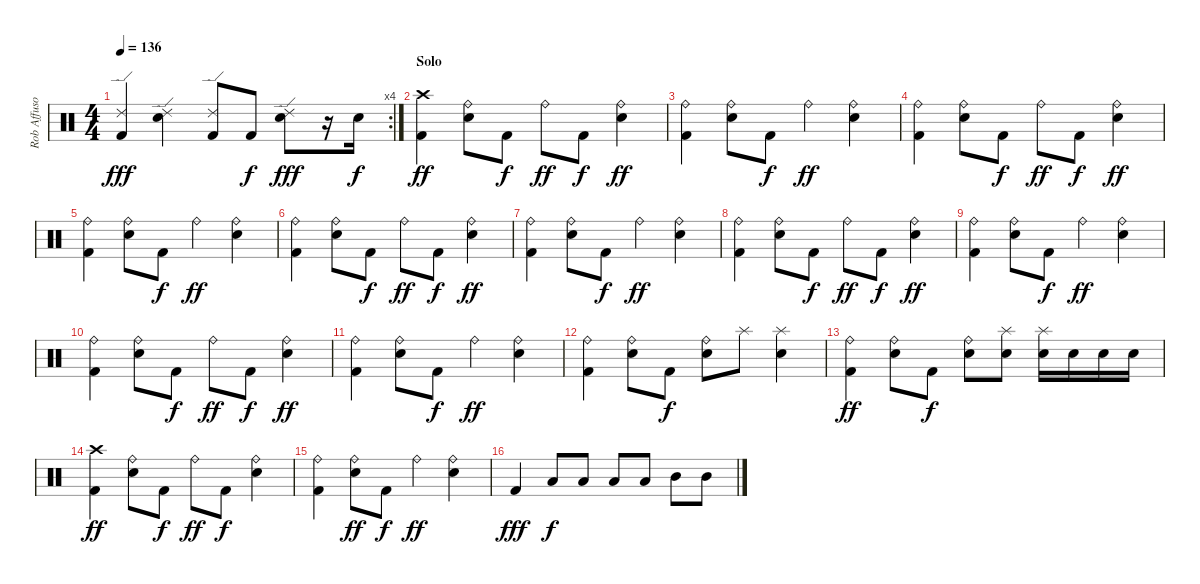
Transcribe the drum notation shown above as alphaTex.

\track ("Rob Affuso" "Rob Affuso") {instrument percussion}
\staff {score}
\articulation defaults
\rc 4
\ts (4 4)
\tempo 136
\clef neutral
\ks c
("Ride (edge) 2" "Kick (hit) 2").4{dy fff} ("Ride (edge) 2" "Snare (hit) 2").4 ("Ride (edge) 2" "Kick (hit) 2").8 "Kick (hit) 2".8{dy f} ("Ride (edge) 2" "Snare (hit) 2").8{dy fff} r.16 "Snare (hit) 2".16{dy f} |
\section ("" "Solo")
("Crash high (hit)" "Kick (hit) 2").4{dy ff} ("Ride (bell)" "Snare (hit) 2").8 "Kick (hit) 2".8{dy f} "Ride (bell)".8{dy ff} "Kick (hit) 2".8{dy f} ("Ride (bell)" "Snare (hit) 2").4{dy ff} |
("Ride (bell)" "Kick (hit) 2").4 ("Ride (bell)" "Snare (hit) 2").8 "Kick (hit) 2".8{dy f} "Ride (bell)".4{dy ff} ("Ride (bell)" "Snare (hit) 2").4 |
("Ride (bell)" "Kick (hit) 2").4 ("Ride (bell)" "Snare (hit) 2").8 "Kick (hit) 2".8{dy f} "Ride (bell)".8{dy ff} "Kick (hit) 2".8{dy f} ("Ride (bell)" "Snare (hit) 2").4{dy ff} |
("Ride (bell)" "Kick (hit) 2").4 ("Ride (bell)" "Snare (hit) 2").8 "Kick (hit) 2".8{dy f} "Ride (bell)".4{dy ff} ("Ride (bell)" "Snare (hit) 2").4 |
("Ride (bell)" "Kick (hit) 2").4 ("Ride (bell)" "Snare (hit) 2").8 "Kick (hit) 2".8{dy f} "Ride (bell)".8{dy ff} "Kick (hit) 2".8{dy f} ("Ride (bell)" "Snare (hit) 2").4{dy ff} |
("Ride (bell)" "Kick (hit) 2").4 ("Ride (bell)" "Snare (hit) 2").8 "Kick (hit) 2".8{dy f} "Ride (bell)".4{dy ff} ("Ride (bell)" "Snare (hit) 2").4 |
("Ride (bell)" "Kick (hit) 2").4 ("Ride (bell)" "Snare (hit) 2").8 "Kick (hit) 2".8{dy f} "Ride (bell)".8{dy ff} "Kick (hit) 2".8{dy f} ("Ride (bell)" "Snare (hit) 2").4{dy ff} |
("Ride (bell)" "Kick (hit) 2").4 ("Ride (bell)" "Snare (hit) 2").8 "Kick (hit) 2".8{dy f} "Ride (bell)".4{dy ff} ("Ride (bell)" "Snare (hit) 2").4 |
("Ride (bell)" "Kick (hit) 2").4 ("Ride (bell)" "Snare (hit) 2").8 "Kick (hit) 2".8{dy f} "Ride (bell)".8{dy ff} "Kick (hit) 2".8{dy f} ("Ride (bell)" "Snare (hit) 2").4{dy ff} |
("Ride (bell)" "Kick (hit) 2").4 ("Ride (bell)" "Snare (hit) 2").8 "Kick (hit) 2".8{dy f} "Ride (bell)".4{dy ff} ("Ride (bell)" "Snare (hit) 2").4 |
("Ride (bell)" "Kick (hit) 2").4 ("Ride (bell)" "Snare (hit) 2").8 "Kick (hit) 2".8{dy f} ("Ride (bell)" "Snare (hit) 2").8 "Splash (hit)".8 ("Splash (hit)" "Snare (hit) 2").4 |
("Ride (bell)" "Kick (hit) 2").4{dy ff} ("Ride (bell)" "Snare (hit) 2").8 "Kick (hit) 2".8{dy f} ("Ride (bell)" "Snare (hit) 2").8 ("Splash (hit)" "Snare (hit) 2").8 ("Splash (hit)" "Snare (hit) 2").16 "Snare (hit) 2".16 "Snare (hit) 2".16 "Snare (hit) 2".16 |
("Crash high (hit)" "Kick (hit) 2").4{dy ff} ("Ride (bell)" "Snare (hit) 2").8 "Kick (hit) 2".8{dy f} "Ride (bell)".8{dy ff} "Kick (hit) 2".8{dy f} ("Ride (bell)" "Snare (hit) 2").4 |
("Ride (bell)" "Kick (hit) 2").4 ("Ride (bell)" "Snare (hit) 2").8{dy ff} "Kick (hit) 2".8{dy f} "Ride (bell)".4{dy ff} ("Ride (bell)" "Snare (hit) 2").4 |
"Kick (hit) 2".4{dy fff} "Low Floor Tom (hit)".8{dy f} "Low Floor Tom (hit)".8 "Low Tom (hit)".8 "Low Tom (hit)".8 "Mid Tom (hit)".8 "Mid Tom (hit)".8
